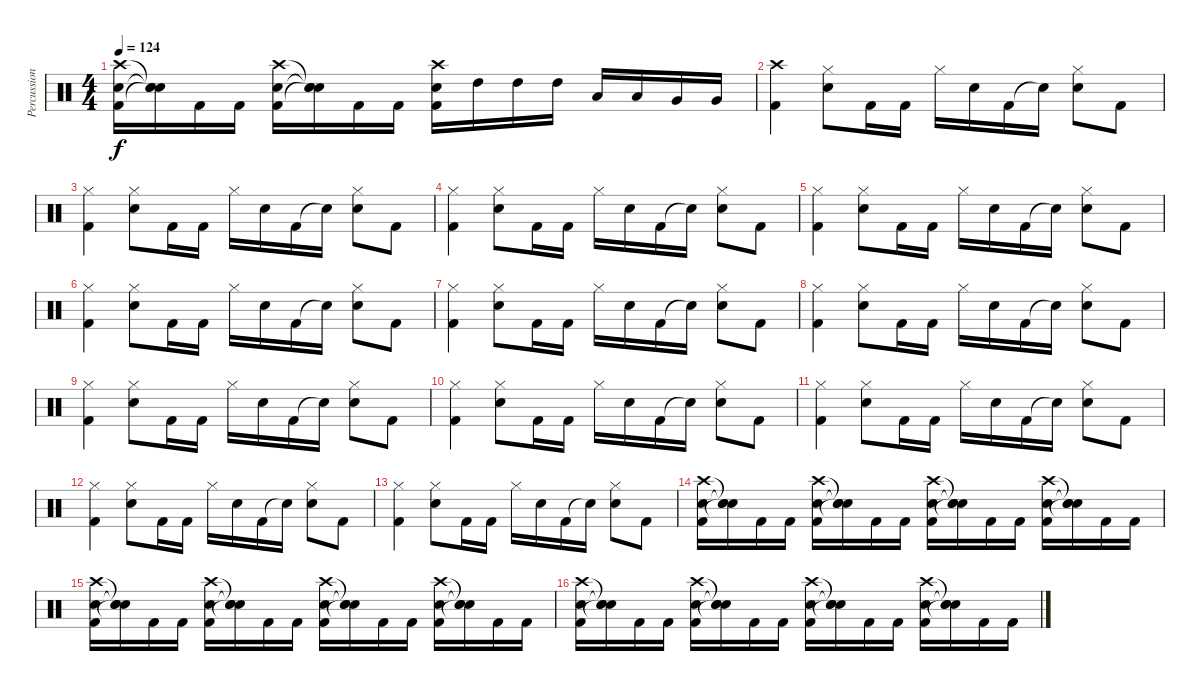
\track ("Percussions" "Percussion") {instrument percussion}
\staff {score}
\articulation defaults
\ts (4 4)
\tempo 124
\clef neutral
\ks c
("Kick (hit) 2" "Electric Snare (hit)" "Crash high (hit)").16{dy f} ("Snare (hit)"{t} "Snare (hit)"{t} "Snare (hit)"{t}).16 "Kick (hit) 2".16 "Kick (hit) 2".16 ("Kick (hit) 2" "Electric Snare (hit)" "Crash high (hit)").16 ("Snare (hit)"{t} "Snare (hit)"{t} "Snare (hit)"{t}).16 "Kick (hit) 2".16 "Kick (hit) 2".16 ("Kick (hit) 2" "Electric Snare (hit)" "Crash high (hit)").16 "High Tom (hit)".16 "High Tom (hit)".16 "High Tom (hit)".16 "Low Tom (hit)".16 "Low Tom (hit)".16 "Very Low Tom (hit)".16 "Very Low Tom (hit)".16 |
("Kick (hit) 2" "Crash high (hit)").4 ("Electric Snare (hit)" "Hi-Hat (closed)").8 "Kick (hit) 2".16 "Kick (hit) 2".16 "Hi-Hat (closed)".16 "Electric Snare (hit)".16 "Kick (hit) 2".16 "Snare (hit)"{t}.16 ("Electric Snare (hit)" "Hi-Hat (closed)").8 "Kick (hit) 2".8 |
("Kick (hit) 2" "Hi-Hat (closed)").4 ("Electric Snare (hit)" "Hi-Hat (closed)").8 "Kick (hit) 2".16 "Kick (hit) 2".16 "Hi-Hat (closed)".16 "Electric Snare (hit)".16 "Kick (hit) 2".16 "Snare (hit)"{t}.16 ("Electric Snare (hit)" "Hi-Hat (closed)").8 "Kick (hit) 2".8 |
("Kick (hit) 2" "Hi-Hat (closed)").4 ("Electric Snare (hit)" "Hi-Hat (closed)").8 "Kick (hit) 2".16 "Kick (hit) 2".16 "Hi-Hat (closed)".16 "Electric Snare (hit)".16 "Kick (hit) 2".16 "Snare (hit)"{t}.16 ("Electric Snare (hit)" "Hi-Hat (closed)").8 "Kick (hit) 2".8 |
("Kick (hit) 2" "Hi-Hat (closed)").4 ("Electric Snare (hit)" "Hi-Hat (closed)").8 "Kick (hit) 2".16 "Kick (hit) 2".16 "Hi-Hat (closed)".16 "Electric Snare (hit)".16 "Kick (hit) 2".16 "Snare (hit)"{t}.16 ("Electric Snare (hit)" "Hi-Hat (closed)").8 "Kick (hit) 2".8 |
("Kick (hit) 2" "Hi-Hat (closed)").4 ("Electric Snare (hit)" "Hi-Hat (closed)").8 "Kick (hit) 2".16 "Kick (hit) 2".16 "Hi-Hat (closed)".16 "Electric Snare (hit)".16 "Kick (hit) 2".16 "Snare (hit)"{t}.16 ("Electric Snare (hit)" "Hi-Hat (closed)").8 "Kick (hit) 2".8 |
("Kick (hit) 2" "Hi-Hat (closed)").4 ("Electric Snare (hit)" "Hi-Hat (closed)").8 "Kick (hit) 2".16 "Kick (hit) 2".16 "Hi-Hat (closed)".16 "Electric Snare (hit)".16 "Kick (hit) 2".16 "Snare (hit)"{t}.16 ("Electric Snare (hit)" "Hi-Hat (closed)").8 "Kick (hit) 2".8 |
("Kick (hit) 2" "Hi-Hat (closed)").4 ("Electric Snare (hit)" "Hi-Hat (closed)").8 "Kick (hit) 2".16 "Kick (hit) 2".16 "Hi-Hat (closed)".16 "Electric Snare (hit)".16 "Kick (hit) 2".16 "Snare (hit)"{t}.16 ("Electric Snare (hit)" "Hi-Hat (closed)").8 "Kick (hit) 2".8 |
("Kick (hit) 2" "Hi-Hat (closed)").4 ("Electric Snare (hit)" "Hi-Hat (closed)").8 "Kick (hit) 2".16 "Kick (hit) 2".16 "Hi-Hat (closed)".16 "Electric Snare (hit)".16 "Kick (hit) 2".16 "Snare (hit)"{t}.16 ("Electric Snare (hit)" "Hi-Hat (closed)").8 "Kick (hit) 2".8 |
("Kick (hit) 2" "Hi-Hat (closed)").4 ("Electric Snare (hit)" "Hi-Hat (closed)").8 "Kick (hit) 2".16 "Kick (hit) 2".16 "Hi-Hat (closed)".16 "Electric Snare (hit)".16 "Kick (hit) 2".16 "Snare (hit)"{t}.16 ("Electric Snare (hit)" "Hi-Hat (closed)").8 "Kick (hit) 2".8 |
("Kick (hit) 2" "Hi-Hat (closed)").4 ("Electric Snare (hit)" "Hi-Hat (closed)").8 "Kick (hit) 2".16 "Kick (hit) 2".16 "Hi-Hat (closed)".16 "Electric Snare (hit)".16 "Kick (hit) 2".16 "Snare (hit)"{t}.16 ("Electric Snare (hit)" "Hi-Hat (closed)").8 "Kick (hit) 2".8 |
("Kick (hit) 2" "Hi-Hat (closed)").4 ("Electric Snare (hit)" "Hi-Hat (closed)").8 "Kick (hit) 2".16 "Kick (hit) 2".16 "Hi-Hat (closed)".16 "Electric Snare (hit)".16 "Kick (hit) 2".16 "Snare (hit)"{t}.16 ("Electric Snare (hit)" "Hi-Hat (closed)").8 "Kick (hit) 2".8 |
("Kick (hit) 2" "Hi-Hat (closed)").4 ("Electric Snare (hit)" "Hi-Hat (closed)").8 "Kick (hit) 2".16 "Kick (hit) 2".16 "Hi-Hat (closed)".16 "Electric Snare (hit)".16 "Kick (hit) 2".16 "Snare (hit)"{t}.16 ("Electric Snare (hit)" "Hi-Hat (closed)").8 "Kick (hit) 2".8 |
("Kick (hit) 2" "Electric Snare (hit)" "Crash high (hit)").16 ("Snare (hit)"{t} "Snare (hit)"{t} "Snare (hit)"{t}).16 "Kick (hit) 2".16 "Kick (hit) 2".16 ("Kick (hit) 2" "Electric Snare (hit)" "Crash high (hit)").16 ("Snare (hit)"{t} "Snare (hit)"{t} "Snare (hit)"{t}).16 "Kick (hit) 2".16 "Kick (hit) 2".16 ("Kick (hit) 2" "Electric Snare (hit)" "Crash high (hit)").16 ("Snare (hit)"{t} "Snare (hit)"{t} "Snare (hit)"{t}).16 "Kick (hit) 2".16 "Kick (hit) 2".16 ("Kick (hit) 2" "Electric Snare (hit)" "Crash high (hit)").16 ("Snare (hit)"{t} "Snare (hit)"{t} "Snare (hit)"{t}).16 "Kick (hit) 2".16 "Kick (hit) 2".16 |
("Kick (hit) 2" "Electric Snare (hit)" "Crash high (hit)").16 ("Snare (hit)"{t} "Snare (hit)"{t} "Snare (hit)"{t}).16 "Kick (hit) 2".16 "Kick (hit) 2".16 ("Kick (hit) 2" "Electric Snare (hit)" "Crash high (hit)").16 ("Snare (hit)"{t} "Snare (hit)"{t} "Snare (hit)"{t}).16 "Kick (hit) 2".16 "Kick (hit) 2".16 ("Kick (hit) 2" "Electric Snare (hit)" "Crash high (hit)").16 ("Snare (hit)"{t} "Snare (hit)"{t} "Snare (hit)"{t}).16 "Kick (hit) 2".16 "Kick (hit) 2".16 ("Kick (hit) 2" "Electric Snare (hit)" "Crash high (hit)").16 ("Snare (hit)"{t} "Snare (hit)"{t} "Snare (hit)"{t}).16 "Kick (hit) 2".16 "Kick (hit) 2".16 |
("Kick (hit) 2" "Electric Snare (hit)" "Crash high (hit)").16 ("Snare (hit)"{t} "Snare (hit)"{t} "Snare (hit)"{t}).16 "Kick (hit) 2".16 "Kick (hit) 2".16 ("Kick (hit) 2" "Electric Snare (hit)" "Crash high (hit)").16 ("Snare (hit)"{t} "Snare (hit)"{t} "Snare (hit)"{t}).16 "Kick (hit) 2".16 "Kick (hit) 2".16 ("Kick (hit) 2" "Electric Snare (hit)" "Crash high (hit)").16 ("Snare (hit)"{t} "Snare (hit)"{t} "Snare (hit)"{t}).16 "Kick (hit) 2".16 "Kick (hit) 2".16 ("Kick (hit) 2" "Electric Snare (hit)" "Crash high (hit)").16 ("Snare (hit)"{t} "Snare (hit)"{t} "Snare (hit)"{t}).16 "Kick (hit) 2".16 "Kick (hit) 2".16
